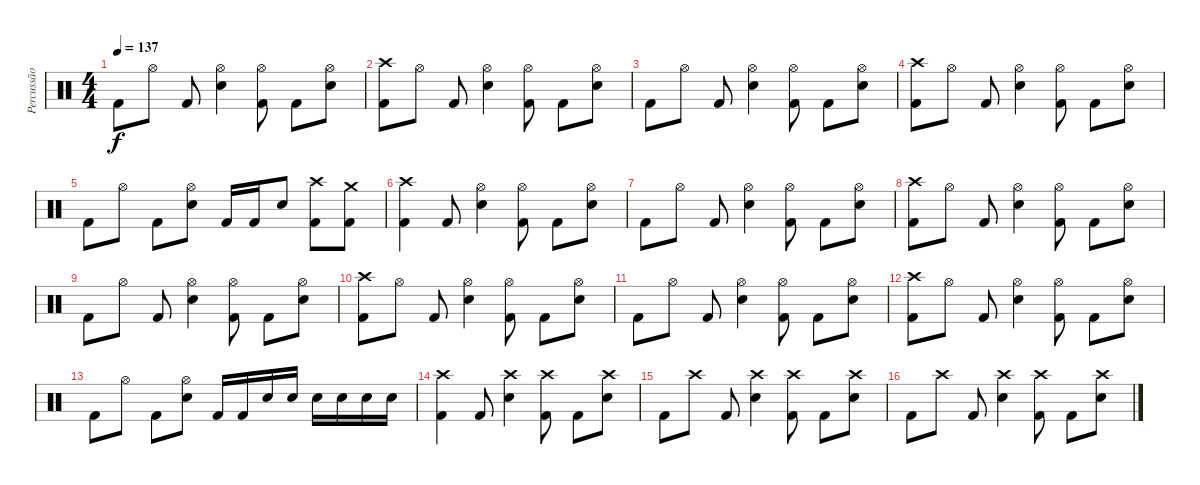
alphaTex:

\track ("Percussão" "Percussão") {instrument percussion}
\staff {score}
\articulation defaults
\ts (4 4)
\tempo 137
\clef neutral
\ks c "Kick (hit) 2".8{dy f} "Hi-Hat (open)".8 "Kick (hit) 2".8
("Hi-Hat (open)" "Electric Snare (hit)").4 ("Hi-Hat (open)" "Kick (hit) 2").8 "Kick (hit) 2".8 ("Hi-Hat (open)" "Electric Snare (hit)").8 |
("Crash high (hit)" "Kick (hit) 2").8 "Hi-Hat (open)".8 "Kick (hit) 2".8 ("Hi-Hat (open)" "Electric Snare (hit)").4 ("Hi-Hat (open)" "Kick (hit) 2").8 "Kick (hit) 2".8 ("Hi-Hat (open)" "Electric Snare (hit)").8 |
"Kick (hit) 2".8 "Hi-Hat (open)".8 "Kick (hit) 2".8 ("Hi-Hat (open)" "Electric Snare (hit)").4 ("Hi-Hat (open)" "Kick (hit) 2").8 "Kick (hit) 2".8 ("Hi-Hat (open)" "Electric Snare (hit)").8 |
("Crash high (hit)" "Kick (hit) 2").8 "Hi-Hat (open)".8 "Kick (hit) 2".8 ("Hi-Hat (open)" "Electric Snare (hit)").4 ("Hi-Hat (open)" "Kick (hit) 2").8 "Kick (hit) 2".8 ("Hi-Hat (open)" "Electric Snare (hit)").8 |
"Kick (hit) 2".8 "Hi-Hat (open)".8 "Kick (hit) 2".8 ("Hi-Hat (open)" "Electric Snare (hit)").8 "Kick (hit) 2".16 "Kick (hit) 2".16 "Electric Snare (hit)".8 ("Crash high (hit)" "Kick (hit) 2").8 ("Crash medium (hit)" "Kick (hit) 2").8 |
("Crash high (hit)" "Kick (hit) 2").4 "Kick (hit) 2".8 ("Hi-Hat (open)" "Electric Snare (hit)").4 ("Hi-Hat (open)" "Kick (hit) 2").8 "Kick (hit) 2".8 ("Hi-Hat (open)" "Electric Snare (hit)").8 |
"Kick (hit) 2".8 "Hi-Hat (open)".8 "Kick (hit) 2".8 ("Hi-Hat (open)" "Electric Snare (hit)").4 ("Hi-Hat (open)" "Kick (hit) 2").8 "Kick (hit) 2".8 ("Hi-Hat (open)" "Electric Snare (hit)").8 |
("Crash high (hit)" "Kick (hit) 2").8 "Hi-Hat (open)".8 "Kick (hit) 2".8 ("Hi-Hat (open)" "Electric Snare (hit)").4 ("Hi-Hat (open)" "Kick (hit) 2").8 "Kick (hit) 2".8 ("Hi-Hat (open)" "Electric Snare (hit)").8 |
"Kick (hit) 2".8 "Hi-Hat (open)".8 "Kick (hit) 2".8 ("Hi-Hat (open)" "Electric Snare (hit)").4 ("Hi-Hat (open)" "Kick (hit) 2").8 "Kick (hit) 2".8 ("Hi-Hat (open)" "Electric Snare (hit)").8 |
("Crash high (hit)" "Kick (hit) 2").8 "Hi-Hat (open)".8 "Kick (hit) 2".8 ("Hi-Hat (open)" "Electric Snare (hit)").4 ("Hi-Hat (open)" "Kick (hit) 2").8 "Kick (hit) 2".8 ("Hi-Hat (open)" "Electric Snare (hit)").8 |
"Kick (hit) 2".8 "Hi-Hat (open)".8 "Kick (hit) 2".8 ("Hi-Hat (open)" "Electric Snare (hit)").4 ("Hi-Hat (open)" "Kick (hit) 2").8 "Kick (hit) 2".8 ("Hi-Hat (open)" "Electric Snare (hit)").8 |
("Crash high (hit)" "Kick (hit) 2").8 "Hi-Hat (open)".8 "Kick (hit) 2".8 ("Hi-Hat (open)" "Electric Snare (hit)").4 ("Hi-Hat (open)" "Kick (hit) 2").8 "Kick (hit) 2".8 ("Hi-Hat (open)" "Electric Snare (hit)").8 |
"Kick (hit) 2".8 "Hi-Hat (open)".8 "Kick (hit) 2".8 ("Hi-Hat (open)" "Electric Snare (hit)").8 "Kick (hit) 2".16 "Kick (hit) 2".16 "Electric Snare (hit)".16 "Electric Snare (hit)".16 "Electric Snare (hit)".16 "Electric Snare (hit)".16 "Electric Snare (hit)".16 "Electric Snare (hit)".16 |
("Crash high (hit)" "Kick (hit) 2").4 "Kick (hit) 2".8 ("Crash high (hit)" "Electric Snare (hit)").4 ("Crash high (hit)" "Kick (hit) 2").8 "Kick (hit) 2".8 ("Crash high (hit)" "Electric Snare (hit)").8 |
"Kick (hit) 2".8 "Crash high (hit)".8 "Kick (hit) 2".8 ("Crash high (hit)" "Electric Snare (hit)").4 ("Crash high (hit)" "Kick (hit) 2").8 "Kick (hit) 2".8 ("Crash high (hit)" "Electric Snare (hit)").8 |
"Kick (hit) 2".8 "Crash high (hit)".8 "Kick (hit) 2".8 ("Crash high (hit)" "Electric Snare (hit)").4 ("Crash high (hit)" "Kick (hit) 2").8 "Kick (hit) 2".8 ("Crash high (hit)" "Electric Snare (hit)").8
